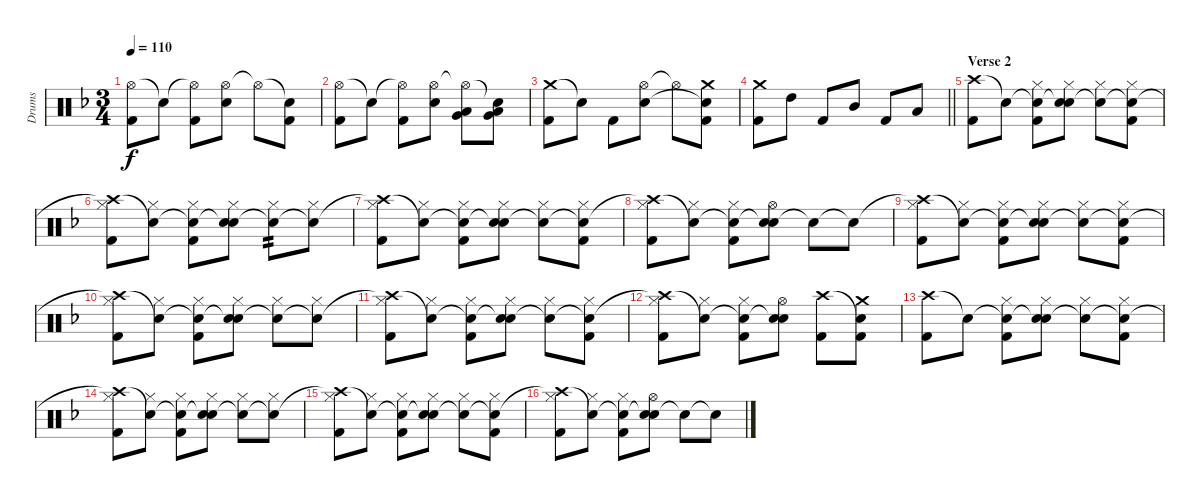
\track ("Drums" "Drums") {instrument percussion}
\staff {score}
\articulation defaults
\ts (3 4)
\tempo 110
\clef neutral
\ks dminor
("Hi-Hat (open)" "Kick (hit) 2").8{dy f} "Snare (hit)"{t}.8 ("Hi-Hat (open)"{t} "Kick (hit) 2").8 ("Hi-Hat (open)" "Snare (hit) 2").8 "Hi-Hat (open)"{t}.8 ("Snare (hit)"{t} "Kick (hit) 2").8 |
("Hi-Hat (open)" "Kick (hit) 2").8 "Snare (hit)"{t}.8 ("Hi-Hat (open)"{t} "Kick (hit) 2").8 ("Hi-Hat (open)" "Snare (hit) 2").8 ("Hi-Hat (open)"{t} "Very Low Tom (hit)" "Low Tom (hit)").8 ("Snare (hit)"{t} "Very Low Tom (hit)" "Low Tom (hit)").8 |
("Crash medium (hit)" "Kick (hit) 2").8 "Snare (hit)"{t}.8 "Kick (hit) 2".8 ("Hi-Hat (open)" "Snare (hit) 2").8 "Hi-Hat (open)"{t}.8 ("Crash medium (hit)" "Snare (hit)"{t} "Kick (hit) 2").8 |
\barLineRight lightlight
("Crash medium (hit)" "Kick (hit) 2").8 "High Tom (hit)".8 "Kick (hit) 2".8 "Mid Tom (hit)".8 "Kick (hit) 2".8 "Low Tom (hit)".8 |
\section ("" "Verse 2")
("Crash high (hit)" "Kick (hit) 2").8 "Snare (hit)"{t}.8 ("Snare (hit)"{t} "Hi-Hat (closed)" "Kick (hit) 2").8 ("Snare (hit)"{t} "Hi-Hat (closed)" "Snare (hit) 2").8 ("Snare (hit)"{t} "Hi-Hat (closed)").8 ("Snare (hit)"{t} "Hi-Hat (closed)" "Kick (hit) 2").8 |
("Crash high (hit)"{t} "Hi-Hat (closed)" "Kick (hit) 2").8 ("Snare (hit)"{t} "Hi-Hat (closed)").8 ("Snare (hit)"{t} "Hi-Hat (closed)" "Kick (hit) 2").8 ("Snare (hit)"{t} "Hi-Hat (closed)" "Snare (hit) 2").8 ("Snare (hit)"{t} "Hi-Hat (closed)").8{tp 2} ("Snare (hit)"{t} "Hi-Hat (closed)").8 |
("Crash high (hit)"{t} "Hi-Hat (closed)" "Kick (hit) 2").8 ("Snare (hit)"{t} "Hi-Hat (closed)").8 ("Snare (hit)"{t} "Hi-Hat (closed)" "Kick (hit) 2").8 ("Snare (hit)"{t} "Hi-Hat (closed)" "Snare (hit) 2").8 ("Snare (hit)"{t} "Hi-Hat (closed)").8 ("Snare (hit)"{t} "Hi-Hat (closed)" "Kick (hit) 2").8 |
("Crash high (hit)"{t} "Hi-Hat (closed)" "Kick (hit) 2").8 ("Snare (hit)"{t} "Hi-Hat (closed)").8 ("Snare (hit)"{t} "Hi-Hat (closed)" "Kick (hit) 2").8 ("Snare (hit)"{t} "Hi-Hat (open)" "Snare (hit) 2").8 "Snare (hit)"{t}.8 "Snare (hit)"{t}.8 |
("Crash high (hit)"{t} "Hi-Hat (closed)" "Kick (hit) 2").8 ("Snare (hit)"{t} "Hi-Hat (closed)").8 ("Snare (hit)"{t} "Hi-Hat (closed)" "Kick (hit) 2").8 ("Snare (hit)"{t} "Hi-Hat (closed)" "Snare (hit) 2").8 ("Snare (hit)"{t} "Hi-Hat (closed)").8 ("Snare (hit)"{t} "Hi-Hat (closed)" "Kick (hit) 2").8 |
("Crash high (hit)"{t} "Hi-Hat (closed)" "Kick (hit) 2").8 ("Snare (hit)"{t} "Hi-Hat (closed)").8 ("Snare (hit)"{t} "Hi-Hat (closed)" "Kick (hit) 2").8 ("Snare (hit)"{t} "Hi-Hat (closed)" "Snare (hit) 2").8 ("Snare (hit)"{t} "Hi-Hat (closed)").8 ("Snare (hit)"{t} "Hi-Hat (closed)").8 |
("Crash high (hit)"{t} "Hi-Hat (closed)" "Kick (hit) 2").8 ("Snare (hit)"{t} "Hi-Hat (closed)").8 ("Snare (hit)"{t} "Hi-Hat (closed)" "Kick (hit) 2").8 ("Snare (hit)"{t} "Hi-Hat (closed)" "Snare (hit) 2").8 ("Snare (hit)"{t} "Hi-Hat (closed)").8 ("Snare (hit)"{t} "Hi-Hat (closed)" "Kick (hit) 2").8 |
("Crash high (hit)"{t} "Hi-Hat (closed)" "Kick (hit) 2").8 ("Snare (hit)"{t} "Hi-Hat (closed)").8 ("Snare (hit)"{t} "Hi-Hat (closed)" "Kick (hit) 2").8 ("Snare (hit)"{t} "Hi-Hat (open)" "Snare (hit) 2").8 ("Crash high (hit)" "Kick (hit) 2").8 ("Snare (hit)"{t} "Crash medium (hit)" "Kick (hit) 2").8 |
("Crash high (hit)" "Kick (hit) 2").8 "Snare (hit)"{t}.8 ("Snare (hit)"{t} "Hi-Hat (closed)" "Kick (hit) 2").8 ("Snare (hit)"{t} "Hi-Hat (closed)" "Snare (hit) 2").8 ("Snare (hit)"{t} "Hi-Hat (closed)").8 ("Snare (hit)"{t} "Hi-Hat (closed)" "Kick (hit) 2").8 |
("Crash high (hit)"{t} "Hi-Hat (closed)" "Kick (hit) 2").8 ("Snare (hit)"{t} "Hi-Hat (closed)").8 ("Snare (hit)"{t} "Hi-Hat (closed)" "Kick (hit) 2").8 ("Snare (hit)"{t} "Hi-Hat (closed)" "Snare (hit) 2").8 ("Snare (hit)"{t} "Hi-Hat (closed)").8 ("Snare (hit)"{t} "Hi-Hat (closed)").8 |
("Crash high (hit)"{t} "Hi-Hat (closed)" "Kick (hit) 2").8 ("Snare (hit)"{t} "Hi-Hat (closed)").8 ("Snare (hit)"{t} "Hi-Hat (closed)" "Kick (hit) 2").8 ("Snare (hit)"{t} "Hi-Hat (closed)" "Snare (hit) 2").8 ("Snare (hit)"{t} "Hi-Hat (closed)").8 ("Snare (hit)"{t} "Hi-Hat (closed)" "Kick (hit) 2").8 |
("Crash high (hit)"{t} "Hi-Hat (closed)" "Kick (hit) 2").8 ("Snare (hit)"{t} "Hi-Hat (closed)").8 ("Snare (hit)"{t} "Hi-Hat (closed)" "Kick (hit) 2").8 ("Snare (hit)"{t} "Hi-Hat (open)" "Snare (hit) 2").8 "Snare (hit)"{t}.8 "Snare (hit)"{t}.8
